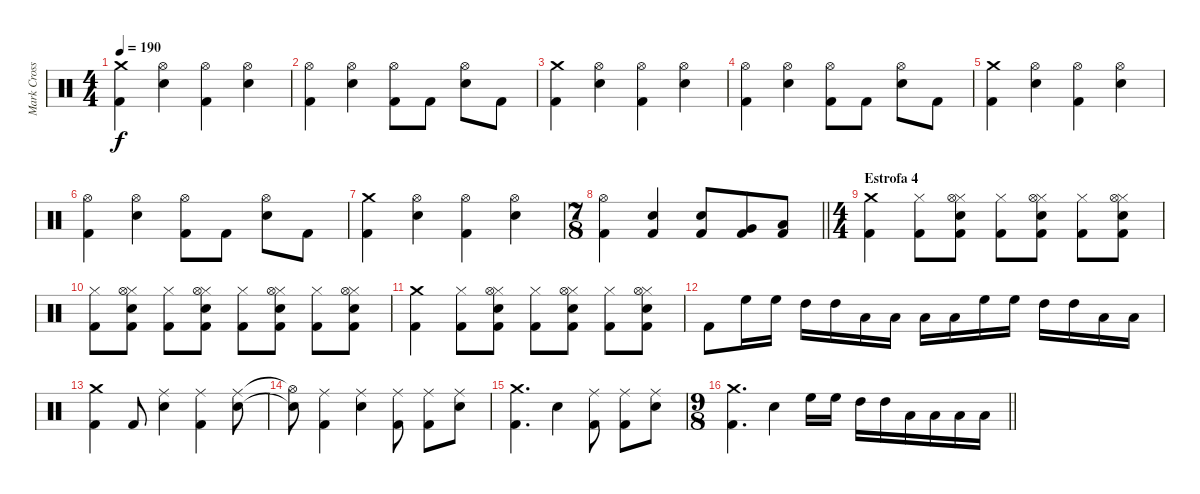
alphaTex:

\track ("Mark Cross" "Mark Cross") {instrument percussion}
\staff {score}
\articulation defaults
\ts (4 4)
\tempo 190
\clef neutral
\ks c
("Crash medium (hit)" "Kick (hit) 2").4{dy f} ("Hi-Hat (open)" "Electric Snare (hit)").4 ("Hi-Hat (open)" "Kick (hit) 2").4 ("Hi-Hat (open)" "Electric Snare (hit)").4 |
("Hi-Hat (open)" "Kick (hit) 2").4 ("Hi-Hat (open)" "Electric Snare (hit)").4 ("Hi-Hat (open)" "Kick (hit) 2").8 "Kick (hit) 2".8 ("Hi-Hat (open)" "Electric Snare (hit)").8 "Kick (hit) 2".8 |
("Crash medium (hit)" "Kick (hit) 2").4 ("Hi-Hat (open)" "Electric Snare (hit)").4 ("Hi-Hat (open)" "Kick (hit) 2").4 ("Hi-Hat (open)" "Electric Snare (hit)").4 |
("Hi-Hat (open)" "Kick (hit) 2").4 ("Hi-Hat (open)" "Electric Snare (hit)").4 ("Hi-Hat (open)" "Kick (hit) 2").8 "Kick (hit) 2".8 ("Hi-Hat (open)" "Electric Snare (hit)").8 "Kick (hit) 2".8 |
("Crash medium (hit)" "Kick (hit) 2").4 ("Hi-Hat (open)" "Electric Snare (hit)").4 ("Hi-Hat (open)" "Kick (hit) 2").4 ("Hi-Hat (open)" "Electric Snare (hit)").4 |
("Hi-Hat (open)" "Kick (hit) 2").4 ("Hi-Hat (open)" "Electric Snare (hit)").4 ("Hi-Hat (open)" "Kick (hit) 2").8 "Kick (hit) 2".8 ("Hi-Hat (open)" "Electric Snare (hit)").8 "Kick (hit) 2".8 |
("Crash medium (hit)" "Kick (hit) 2").4 ("Hi-Hat (open)" "Electric Snare (hit)").4 ("Hi-Hat (open)" "Kick (hit) 2").4 ("Hi-Hat (open)" "Electric Snare (hit)").4 |
\ts (7 8)
\barLineRight lightlight
("Hi-Hat (open)" "Kick (hit) 2").4 ("Electric Snare (hit)" "Kick (hit) 2").4 ("Electric Snare (hit)" "Kick (hit) 2").8 ("Very Low Tom (hit)" "Kick (hit) 2").8 ("Low Floor Tom (hit)" "Kick (hit) 2").8 |
\ts (4 4)
\section ("" "Estrofa 4")
("Crash medium (hit)" "Kick (hit) 2").4 ("Hi-Hat (closed)" "Kick (hit) 2").8 ("Hi-Hat (closed)" "Hi-Hat (open)" "Electric Snare (hit)" "Kick (hit) 2").8 ("Hi-Hat (closed)" "Kick (hit) 2").8 ("Hi-Hat (closed)" "Hi-Hat (open)" "Electric Snare (hit)" "Kick (hit) 2").8 ("Hi-Hat (closed)" "Kick (hit) 2").8 ("Hi-Hat (closed)" "Hi-Hat (open)" "Electric Snare (hit)" "Kick (hit) 2").8 |
("Hi-Hat (closed)" "Kick (hit) 2").8 ("Hi-Hat (closed)" "Hi-Hat (open)" "Electric Snare (hit)" "Kick (hit) 2").8 ("Hi-Hat (closed)" "Kick (hit) 2").8 ("Hi-Hat (closed)" "Hi-Hat (open)" "Electric Snare (hit)" "Kick (hit) 2").8 ("Hi-Hat (closed)" "Kick (hit) 2").8 ("Hi-Hat (closed)" "Hi-Hat (open)" "Electric Snare (hit)" "Kick (hit) 2").8 ("Hi-Hat (closed)" "Kick (hit) 2").8 ("Hi-Hat (closed)" "Hi-Hat (open)" "Electric Snare (hit)" "Kick (hit) 2").8 |
("Crash medium (hit)" "Kick (hit) 2").4 ("Hi-Hat (closed)" "Kick (hit) 2").8 ("Hi-Hat (closed)" "Hi-Hat (open)" "Electric Snare (hit)" "Kick (hit) 2").8 ("Hi-Hat (closed)" "Kick (hit) 2").8 ("Hi-Hat (closed)" "Hi-Hat (open)" "Electric Snare (hit)" "Kick (hit) 2").8 ("Hi-Hat (closed)" "Kick (hit) 2").8 ("Hi-Hat (closed)" "Hi-Hat (open)" "Electric Snare (hit)" "Kick (hit) 2").8 |
"Kick (hit) 2".8 "High Floor Tom (hit)".16 "High Floor Tom (hit)".16 "High Tom (hit)".16 "High Tom (hit)".16 "Low Tom (hit)".16 "Low Tom (hit)".16 "Low Tom (hit)".16 "Low Tom (hit)".16 "High Floor Tom (hit)".16 "High Floor Tom (hit)".16 "High Tom (hit)".16 "High Tom (hit)".16 "Low Tom (hit)".16 "Low Tom (hit)".16 |
("Crash medium (hit)" "Kick (hit) 2").4 "Kick (hit) 2".8 ("Ride (middle)" "Electric Snare (hit)").4 ("Ride (middle)" "Kick (hit) 2").4 ("Ride (middle)" "Electric Snare (hit)").8 |
("Hi-Hat (open)"{t} "Electric Snare (hit)"{t}).8 ("Ride (middle)" "Kick (hit) 2").4 ("Ride (middle)" "Electric Snare (hit)").4 ("Ride (middle)" "Kick (hit) 2").8 ("Ride (middle)" "Kick (hit) 2").8 ("Ride (middle)" "Electric Snare (hit)").8 |
("Crash medium (hit)" "Kick (hit) 2").4{d} "Electric Snare (hit)".4 ("Ride (middle)" "Kick (hit) 2").8 ("Ride (middle)" "Kick (hit) 2").8 ("Ride (middle)" "Electric Snare (hit)").8 |
\ts (9 8)
\barLineRight lightlight
("Crash medium (hit)" "Kick (hit) 2").4{d} "Electric Snare (hit)".4 "High Floor Tom (hit)".16 "High Floor Tom (hit)".16 "High Tom (hit)".16 "High Tom (hit)".16 "Low Tom (hit)".16 "Low Tom (hit)".16 "Low Tom (hit)".16 "Low Tom (hit)".16
